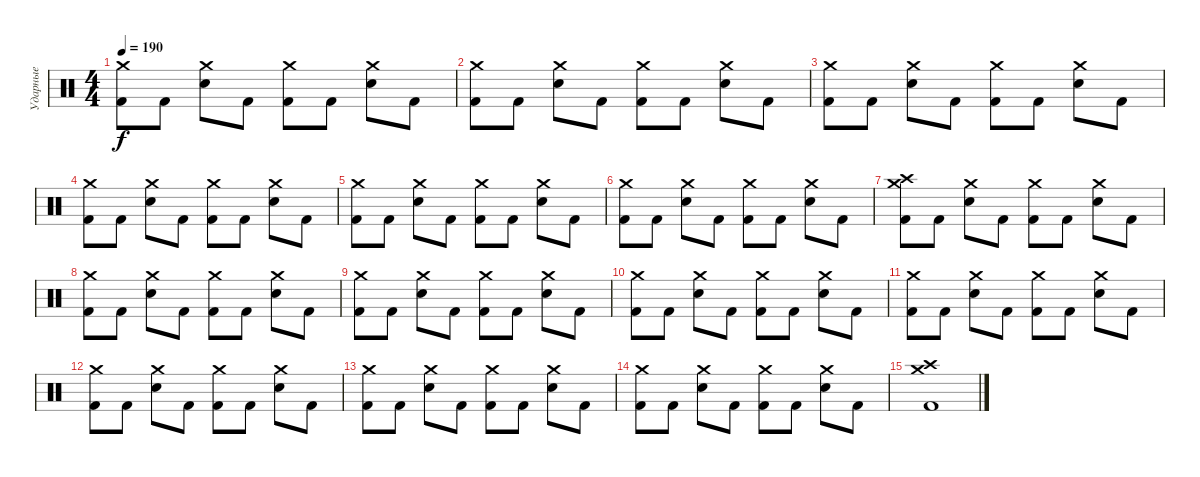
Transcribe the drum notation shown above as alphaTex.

\track ("Ударные" "Ударные") {instrument percussion}
\staff {score}
\articulation defaults
\ts (4 4)
\tempo 190
\clef neutral
\ks c
("Crash medium (hit)" "Kick (hit) 2").8{dy f} "Kick (hit) 2".8 ("Crash medium (hit)" "Electric Snare (hit)").8 "Kick (hit) 2".8 ("Crash medium (hit)" "Kick (hit) 2").8 "Kick (hit) 2".8 ("Crash medium (hit)" "Electric Snare (hit)").8 "Kick (hit) 2".8 |
("Crash medium (hit)" "Kick (hit) 2").8 "Kick (hit) 2".8 ("Crash medium (hit)" "Electric Snare (hit)").8 "Kick (hit) 2".8 ("Crash medium (hit)" "Kick (hit) 2").8 "Kick (hit) 2".8 ("Crash medium (hit)" "Electric Snare (hit)").8 "Kick (hit) 2".8 |
("Crash medium (hit)" "Kick (hit) 2").8 "Kick (hit) 2".8 ("Crash medium (hit)" "Electric Snare (hit)").8 "Kick (hit) 2".8 ("Crash medium (hit)" "Kick (hit) 2").8 "Kick (hit) 2".8 ("Crash medium (hit)" "Electric Snare (hit)").8 "Kick (hit) 2".8 |
("Crash medium (hit)" "Kick (hit) 2").8 "Kick (hit) 2".8 ("Crash medium (hit)" "Electric Snare (hit)").8 "Kick (hit) 2".8 ("Crash medium (hit)" "Kick (hit) 2").8 "Kick (hit) 2".8 ("Crash medium (hit)" "Electric Snare (hit)").8 "Kick (hit) 2".8 |
("Crash medium (hit)" "Kick (hit) 2").8 "Kick (hit) 2".8 ("Crash medium (hit)" "Electric Snare (hit)").8 "Kick (hit) 2".8 ("Crash medium (hit)" "Kick (hit) 2").8 "Kick (hit) 2".8 ("Crash medium (hit)" "Electric Snare (hit)").8 "Kick (hit) 2".8 |
("Crash medium (hit)" "Kick (hit) 2").8 "Kick (hit) 2".8 ("Crash medium (hit)" "Electric Snare (hit)").8 "Kick (hit) 2".8 ("Crash medium (hit)" "Kick (hit) 2").8 "Kick (hit) 2".8 ("Crash medium (hit)" "Electric Snare (hit)").8 "Kick (hit) 2".8 |
("Crash high (hit)" "Crash medium (hit)" "Kick (hit) 2").8 "Kick (hit) 2".8 ("Crash medium (hit)" "Electric Snare (hit)").8 "Kick (hit) 2".8 ("Crash medium (hit)" "Kick (hit) 2").8 "Kick (hit) 2".8 ("Crash medium (hit)" "Electric Snare (hit)").8 "Kick (hit) 2".8 |
("Crash medium (hit)" "Kick (hit) 2").8 "Kick (hit) 2".8 ("Crash medium (hit)" "Electric Snare (hit)").8 "Kick (hit) 2".8 ("Crash medium (hit)" "Kick (hit) 2").8 "Kick (hit) 2".8 ("Crash medium (hit)" "Electric Snare (hit)").8 "Kick (hit) 2".8 |
("Crash medium (hit)" "Kick (hit) 2").8 "Kick (hit) 2".8 ("Crash medium (hit)" "Electric Snare (hit)").8 "Kick (hit) 2".8 ("Crash medium (hit)" "Kick (hit) 2").8 "Kick (hit) 2".8 ("Crash medium (hit)" "Electric Snare (hit)").8 "Kick (hit) 2".8 |
("Crash medium (hit)" "Kick (hit) 2").8 "Kick (hit) 2".8 ("Crash medium (hit)" "Electric Snare (hit)").8 "Kick (hit) 2".8 ("Crash medium (hit)" "Kick (hit) 2").8 "Kick (hit) 2".8 ("Crash medium (hit)" "Electric Snare (hit)").8 "Kick (hit) 2".8 |
("Crash medium (hit)" "Kick (hit) 2").8 "Kick (hit) 2".8 ("Crash medium (hit)" "Electric Snare (hit)").8 "Kick (hit) 2".8 ("Crash medium (hit)" "Kick (hit) 2").8 "Kick (hit) 2".8 ("Crash medium (hit)" "Electric Snare (hit)").8 "Kick (hit) 2".8 |
("Crash medium (hit)" "Kick (hit) 2").8 "Kick (hit) 2".8 ("Crash medium (hit)" "Electric Snare (hit)").8 "Kick (hit) 2".8 ("Crash medium (hit)" "Kick (hit) 2").8 "Kick (hit) 2".8 ("Crash medium (hit)" "Electric Snare (hit)").8 "Kick (hit) 2".8 |
("Crash medium (hit)" "Kick (hit) 2").8 "Kick (hit) 2".8 ("Crash medium (hit)" "Electric Snare (hit)").8 "Kick (hit) 2".8 ("Crash medium (hit)" "Kick (hit) 2").8 "Kick (hit) 2".8 ("Crash medium (hit)" "Electric Snare (hit)").8 "Kick (hit) 2".8 |
("Crash medium (hit)" "Kick (hit) 2").8 "Kick (hit) 2".8 ("Crash medium (hit)" "Electric Snare (hit)").8 "Kick (hit) 2".8 ("Crash medium (hit)" "Kick (hit) 2").8 "Kick (hit) 2".8 ("Crash medium (hit)" "Electric Snare (hit)").8 "Kick (hit) 2".8 |
("Crash high (hit)" "Crash medium (hit)" "Kick (hit) 2").1
